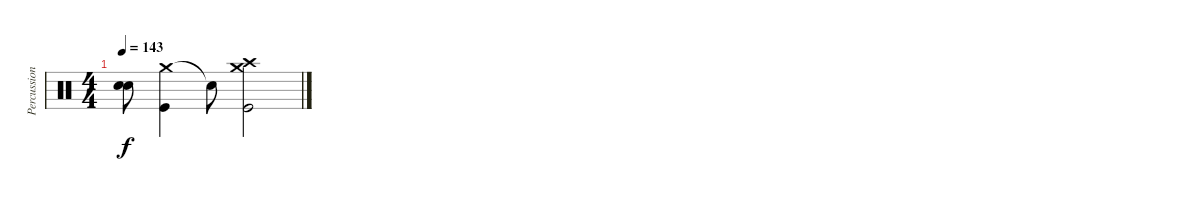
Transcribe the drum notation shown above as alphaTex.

\track ("Percussion" "Percussion") {instrument percussion}
\staff {score}
\articulation defaults
\ts (4 4)
\tempo 143
\clef neutral
\ks c
("Snare (hit)"{t} "Snare (hit)"{t}).8{dy f} ("Crash medium (hit)" "Kick (hit)").4 "Snare (hit)"{t}.8 ("Crash high (hit)" "Crash medium (hit)" "Kick (hit)").2
